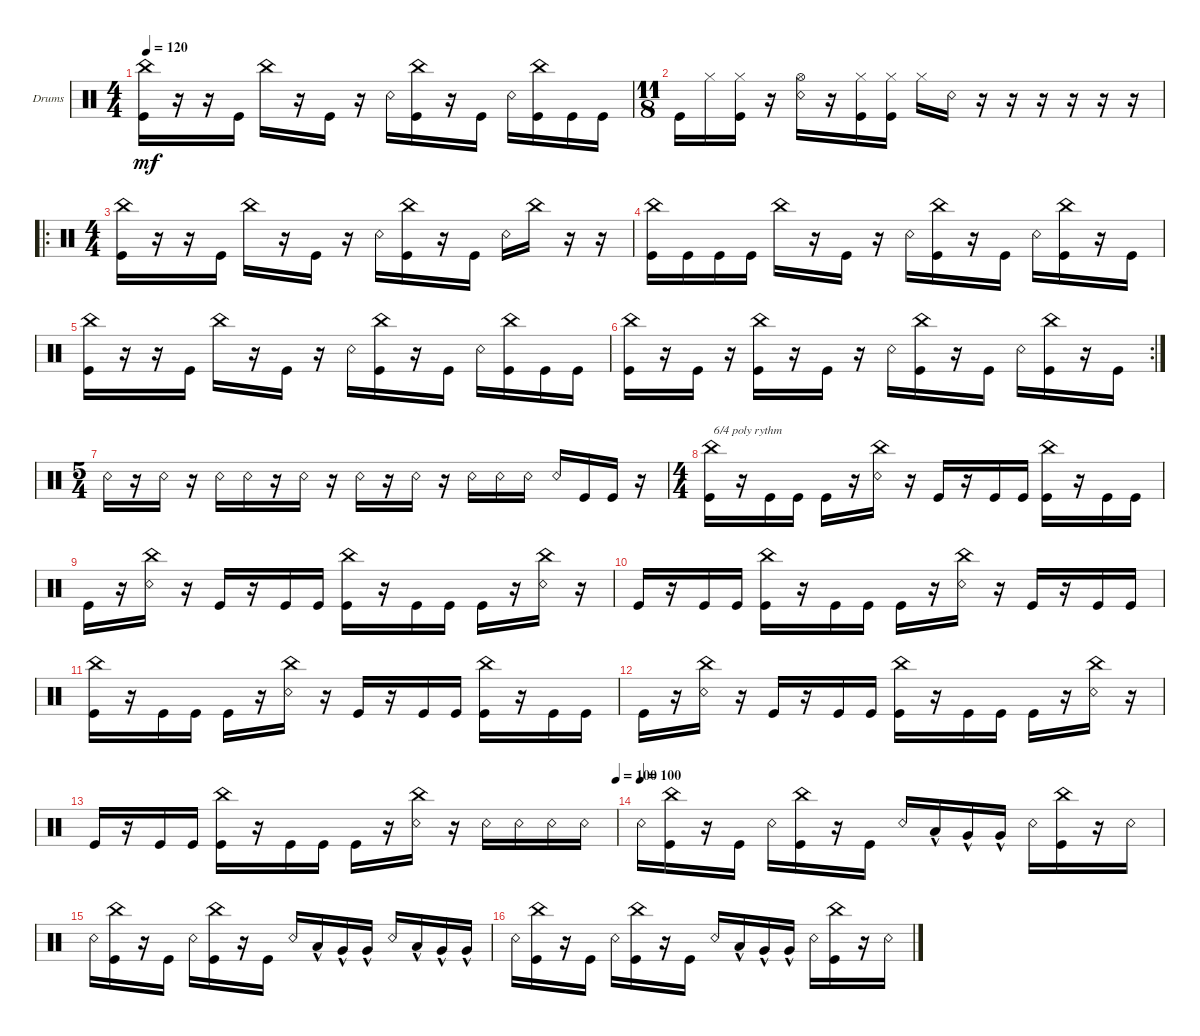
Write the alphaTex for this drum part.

\defaultSystemsLayout 4
\bracketExtendMode groupsimilarinstruments
\firstSystemTrackNameOrientation horizontal
\otherSystemsTrackNameOrientation horizontal
\track ("Drumkit" "Drums") {instrument percussion}
\staff {score}
\articulation defaults
\ts (4 4)
\tempo 120
\clef neutral
\ks c
("Kick (hit)" "China (hit)").16{dy mf} r.16 r.16 "Kick (hit)".16 "China (hit)".16 r.16 "Kick (hit)".16 r.16 "Snare (rim shot)".16 ("Kick (hit)" "China (hit)").16 r.16 "Kick (hit)".16 "Snare (rim shot)".16 ("Kick (hit)" "China (hit)").16 "Kick (hit)".16 "Kick (hit)".16 |
\ts (11 8)
"Kick (hit)".16 "Hi-Hat (closed)".16 ("Kick (hit)" "Hi-Hat (closed)").16 r.16 ("Snare (rim shot)" "Hi-Hat (open)").16 r.16 ("Kick (hit)" "Hi-Hat (closed)").16 ("Kick (hit)" "Hi-Hat (closed)").16 "Hi-Hat (closed)".16 "Snare (rim shot)".16 r.16 r.16 r.16 r.16 r.16 r.16 |
\ro
\ts (4 4)
("Kick (hit)" "China (hit)").16 r.16 r.16 "Kick (hit)".16 "China (hit)".16 r.16 "Kick (hit)".16 r.16 "Snare (rim shot)".16 ("Kick (hit)" "China (hit)").16 r.16 "Kick (hit)".16 "Snare (rim shot)".16 "China (hit)".16 r.16 r.16 |
("Kick (hit)" "China (hit)").16 "Kick (hit)".16 "Kick (hit)".16 "Kick (hit)".16 "China (hit)".16 r.16 "Kick (hit)".16 r.16 "Snare (rim shot)".16 ("Kick (hit)" "China (hit)").16 r.16 "Kick (hit)".16 "Snare (rim shot)".16 ("Kick (hit)" "China (hit)").16 r.16 "Kick (hit)".16 |
("Kick (hit)" "China (hit)").16 r.16 r.16 "Kick (hit)".16 "China (hit)".16 r.16 "Kick (hit)".16 r.16 "Snare (rim shot)".16 ("Kick (hit)" "China (hit)").16 r.16 "Kick (hit)".16 "Snare (rim shot)".16 ("Kick (hit)" "China (hit)").16 "Kick (hit)".16 "Kick (hit)".16 |
\rc 2
("Kick (hit)" "China (hit)").16 r.16 "Kick (hit)".16 r.16 ("China (hit)" "Kick (hit)").16 r.16 "Kick (hit)".16 r.16 "Snare (rim shot)".16 ("Kick (hit)" "China (hit)").16 r.16 "Kick (hit)".16 "Snare (rim shot)".16 ("Kick (hit)" "China (hit)").16 r.16 "Kick (hit)".16 |
\ts (5 4)
"Snare (rim shot)".16 r.16 "Snare (rim shot)".16 r.16 "Snare (rim shot)".16 "Snare (rim shot)".16 r.16 "Snare (rim shot)".16 r.16 "Snare (rim shot)".16 r.16 "Snare (rim shot)".16 r.16 "Snare (rim shot)".16 "Snare (rim shot)".16 "Snare (rim shot)".16 "Snare (rim shot)".16 "Kick (hit)".16 "Kick (hit)".16 r.16 |
\ts (4 4)
("Kick (hit)" "China (hit)").16{txt "6/4 poly rythm"} r.16 "Kick (hit)".16 "Kick (hit)".16 "Kick (hit)".16 r.16 ("Snare (rim shot)" "China (hit)").16 r.16 "Kick (hit)".16 r.16 "Kick (hit)".16 "Kick (hit)".16 ("Kick (hit)" "China (hit)").16 r.16 "Kick (hit)".16 "Kick (hit)".16 |
"Kick (hit)".16 r.16 ("Snare (rim shot)" "China (hit)").16 r.16 "Kick (hit)".16 r.16 "Kick (hit)".16 "Kick (hit)".16 ("Kick (hit)" "China (hit)").16 r.16 "Kick (hit)".16 "Kick (hit)".16 "Kick (hit)".16 r.16 ("Snare (rim shot)" "China (hit)").16 r.16 |
"Kick (hit)".16 r.16 "Kick (hit)".16 "Kick (hit)".16 ("Kick (hit)" "China (hit)").16 r.16 "Kick (hit)".16 "Kick (hit)".16 "Kick (hit)".16 r.16 ("Snare (rim shot)" "China (hit)").16 r.16 "Kick (hit)".16 r.16 "Kick (hit)".16 "Kick (hit)".16 |
("Kick (hit)" "China (hit)").16 r.16 "Kick (hit)".16 "Kick (hit)".16 "Kick (hit)".16 r.16 ("Snare (rim shot)" "China (hit)").16 r.16 "Kick (hit)".16 r.16 "Kick (hit)".16 "Kick (hit)".16 ("Kick (hit)" "China (hit)").16 r.16 "Kick (hit)".16 "Kick (hit)".16 |
"Kick (hit)".16 r.16 ("Snare (rim shot)" "China (hit)").16 r.16 "Kick (hit)".16 r.16 "Kick (hit)".16 "Kick (hit)".16 ("Kick (hit)" "China (hit)").16 r.16 "Kick (hit)".16 "Kick (hit)".16 "Kick (hit)".16 r.16 ("Snare (rim shot)" "China (hit)").16 r.16 |
\tempo (100 1)
"Kick (hit)".16 r.16 "Kick (hit)".16 "Kick (hit)".16 ("Kick (hit)" "China (hit)").16 r.16 "Kick (hit)".16 "Kick (hit)".16 "Kick (hit)".16 r.16 ("Snare (rim shot)" "China (hit)").16 r.16 "Snare (rim shot)".16 "Snare (rim shot)".16 "Snare (rim shot)".16 "Snare (rim shot)".16 |
\tempo (100)
"Snare (rim shot)".16 ("China (hit)" "Kick (hit)").16 r.16 "Kick (hit)".16 "Snare (rim shot)".16 ("China (hit)" "Kick (hit)").16 r.16 "Kick (hit)".16 "Snare (rim shot)".16 "Low Tom (hit)"{hac}.16 "Very Low Tom (hit)"{hac}.16 "Very Low Tom (hit)"{hac}.16 "Snare (rim shot)".16 ("China (hit)" "Kick (hit)").16 r.16 "Snare (rim shot)".16 |
"Snare (rim shot)".16 ("China (hit)" "Kick (hit)").16 r.16 "Kick (hit)".16 "Snare (rim shot)".16 ("China (hit)" "Kick (hit)").16 r.16 "Kick (hit)".16 "Snare (rim shot)".16 "Low Tom (hit)"{hac}.16 "Very Low Tom (hit)"{hac}.16 "Very Low Tom (hit)"{hac}.16 "Snare (rim shot)".16 "Low Tom (hit)"{hac}.16 "Very Low Tom (hit)"{hac}.16 "Very Low Tom (hit)"{hac}.16 |
"Snare (rim shot)".16 ("China (hit)" "Kick (hit)").16 r.16 "Kick (hit)".16 "Snare (rim shot)".16 ("China (hit)" "Kick (hit)").16 r.16 "Kick (hit)".16 "Snare (rim shot)".16 "Low Tom (hit)"{hac}.16 "Very Low Tom (hit)"{hac}.16 "Very Low Tom (hit)"{hac}.16 "Snare (rim shot)".16 ("China (hit)" "Kick (hit)").16 r.16 "Snare (rim shot)".16
